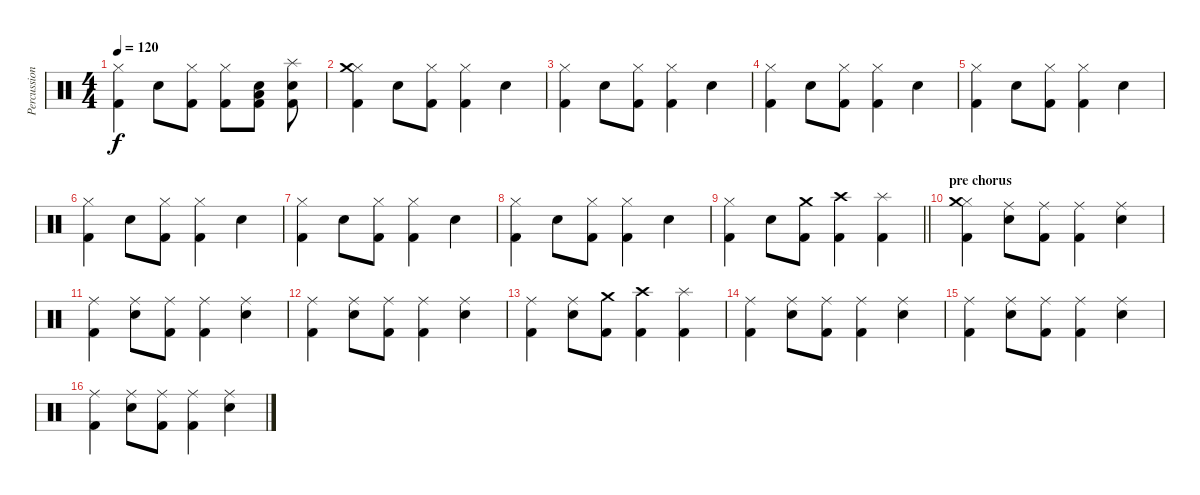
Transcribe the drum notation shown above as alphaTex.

\track ("Percussion" "Percussion") {instrument percussion}
\staff {score}
\articulation defaults
\ts (4 4)
\tempo 120
\clef neutral
\ks c
("Kick (hit) 2" "Hi-Hat (closed)").4{dy f} "Electric Snare (hit)".8 ("Kick (hit) 2" "Hi-Hat (closed)").8 ("Kick (hit) 2" "Hi-Hat (closed)").8 ("Kick (hit) 2" "Electric Snare (hit)" "Low Floor Tom (hit)").8 ("Kick (hit) 2" "Electric Snare (hit)" "Splash (hit)").8 |
("Kick (hit) 2" "Hi-Hat (closed)" "Crash medium (hit)").4 "Electric Snare (hit)".8 ("Kick (hit) 2" "Hi-Hat (closed)").8 ("Kick (hit) 2" "Hi-Hat (closed)").4 "Electric Snare (hit)".4 |
("Kick (hit) 2" "Hi-Hat (closed)").4 "Electric Snare (hit)".8 ("Kick (hit) 2" "Hi-Hat (closed)").8 ("Kick (hit) 2" "Hi-Hat (closed)").4 "Electric Snare (hit)".4 |
("Kick (hit) 2" "Hi-Hat (closed)").4 "Electric Snare (hit)".8 ("Kick (hit) 2" "Hi-Hat (closed)").8 ("Kick (hit) 2" "Hi-Hat (closed)").4 "Electric Snare (hit)".4 |
("Kick (hit) 2" "Hi-Hat (closed)").4 "Electric Snare (hit)".8 ("Kick (hit) 2" "Hi-Hat (closed)").8 ("Kick (hit) 2" "Hi-Hat (closed)").4 "Electric Snare (hit)".4 |
("Kick (hit) 2" "Hi-Hat (closed)").4 "Electric Snare (hit)".8 ("Kick (hit) 2" "Hi-Hat (closed)").8 ("Kick (hit) 2" "Hi-Hat (closed)").4 "Electric Snare (hit)".4 |
("Kick (hit) 2" "Hi-Hat (closed)").4 "Electric Snare (hit)".8 ("Kick (hit) 2" "Hi-Hat (closed)").8 ("Kick (hit) 2" "Hi-Hat (closed)").4 "Electric Snare (hit)".4 |
("Kick (hit) 2" "Hi-Hat (closed)").4 "Electric Snare (hit)".8 ("Kick (hit) 2" "Hi-Hat (closed)").8 ("Kick (hit) 2" "Hi-Hat (closed)").4 "Electric Snare (hit)".4 |
\barLineRight lightlight
("Kick (hit) 2" "Hi-Hat (closed)").4 "Electric Snare (hit)".8 ("Kick (hit) 2" "Crash medium (hit)").8 ("Kick (hit) 2" "Crash high (hit)").4 ("Kick (hit) 2" "Splash (hit)").4 |
\section ("" "pre chorus")
("Kick (hit) 2" "Hi-Hat (closed)" "Crash medium (hit)").4 ("Electric Snare (hit)" "Ride (middle)").8 ("Kick (hit) 2" "Ride (middle)").8 ("Kick (hit) 2" "Ride (middle)").4 ("Electric Snare (hit)" "Ride (middle)").4 |
("Kick (hit) 2" "Ride (middle)").4 ("Electric Snare (hit)" "Ride (middle)").8 ("Kick (hit) 2" "Ride (middle)").8 ("Kick (hit) 2" "Ride (middle)").4 ("Electric Snare (hit)" "Ride (middle)").4 |
("Kick (hit) 2" "Ride (middle)").4 ("Electric Snare (hit)" "Ride (middle)").8 ("Kick (hit) 2" "Ride (middle)").8 ("Kick (hit) 2" "Ride (middle)").4 ("Electric Snare (hit)" "Ride (middle)").4 |
("Kick (hit) 2" "Ride (middle)").4 ("Electric Snare (hit)" "Ride (middle)").8 ("Kick (hit) 2" "Crash medium (hit)").8 ("Kick (hit) 2" "Crash high (hit)").4 ("Kick (hit) 2" "Splash (hit)").4 |
("Kick (hit) 2" "Ride (middle)").4 ("Electric Snare (hit)" "Ride (middle)").8 ("Kick (hit) 2" "Ride (middle)").8 ("Kick (hit) 2" "Ride (middle)").4 ("Electric Snare (hit)" "Ride (middle)").4 |
("Kick (hit) 2" "Ride (middle)").4 ("Electric Snare (hit)" "Ride (middle)").8 ("Kick (hit) 2" "Ride (middle)").8 ("Kick (hit) 2" "Ride (middle)").4 ("Electric Snare (hit)" "Ride (middle)").4 |
("Kick (hit) 2" "Ride (middle)").4 ("Electric Snare (hit)" "Ride (middle)").8 ("Kick (hit) 2" "Ride (middle)").8 ("Kick (hit) 2" "Ride (middle)").4 ("Electric Snare (hit)" "Ride (middle)").4
